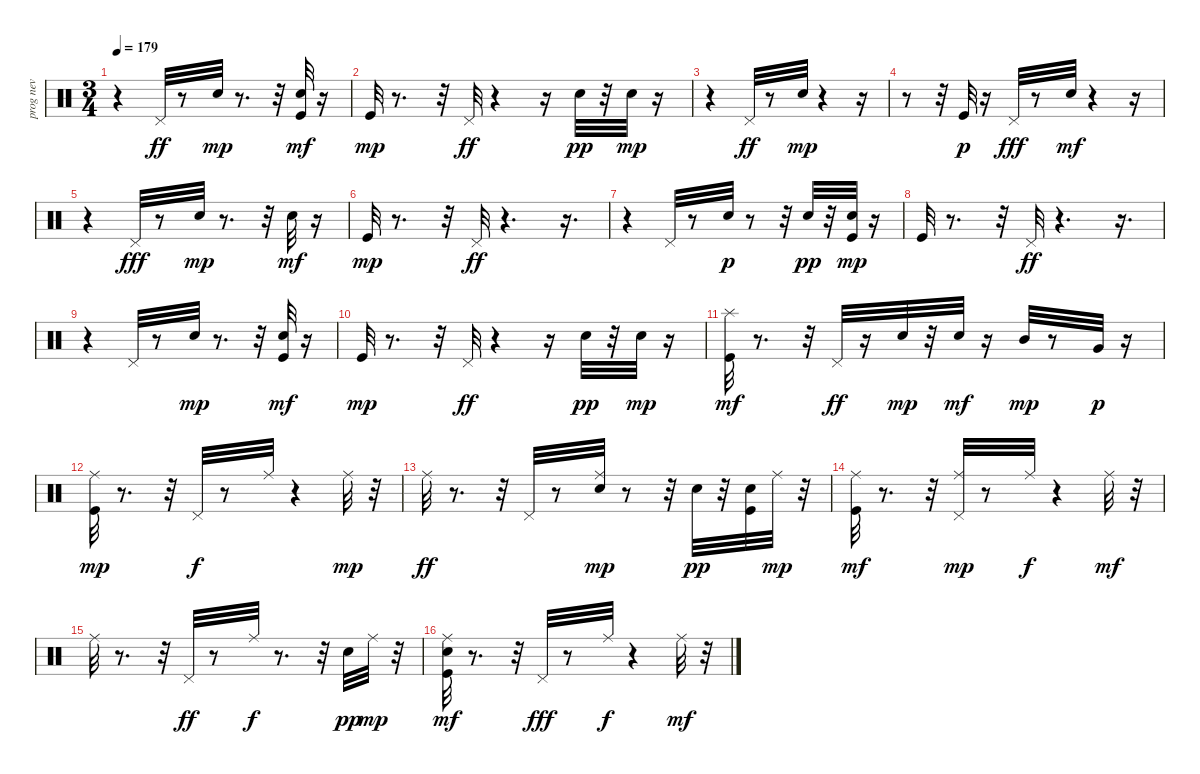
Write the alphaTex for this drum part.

\track ("prog nev" "prog nev") {instrument percussion}
\staff {score}
\articulation defaults
\ts (3 4)
\tempo 179
\clef neutral
\ks c
r.4{dy ff} "Pedal Hi-Hat (hit)".32 r.8 "Snare (hit) 2".32{dy mp} r.8{d} r.32 ("Kick (hit)" "Snare (hit) 2").32{dy mf} r.16 |
"Kick (hit)".32{dy mp} r.8{d} r.32 "Pedal Hi-Hat (hit)".32{dy ff} r.4 r.16 "Snare (hit) 2".32{dy pp} r.32 "Snare (hit) 2".32{dy mp} r.16 |
r.4 "Pedal Hi-Hat (hit)".32{dy ff} r.8 "Snare (hit) 2".32{dy mp} r.4 r.16 |
r.8 r.32 "Kick (hit)".32{dy p} r.16 "Pedal Hi-Hat (hit)".32{dy fff} r.8 "Hand Clap (hit)".32{dy mf} r.4 r.16 |
r.4 "Pedal Hi-Hat (hit)".32{dy fff} r.8 "Snare (hit) 2".32{dy mp} r.8{d} r.32 "Snare (hit) 2".32{dy mf} r.16 |
"Kick (hit)".32{dy mp} r.8{d} r.32 "Pedal Hi-Hat (hit)".32{dy ff} r.4{d} r.16{d} |
r.4 "Pedal Hi-Hat (hit)".32 r.8 "Hand Clap (hit)".32{dy p} r.8 r.32 "Snare (hit) 2".32{dy pp} r.32 ("Kick (hit)" "Snare (hit) 2").32{dy mp} r.16 |
"Kick (hit)".32 r.8{d} r.32 "Pedal Hi-Hat (hit)".32{dy ff} r.4{d} r.16{d} |
r.4 "Pedal Hi-Hat (hit)".32 r.8 "Snare (hit) 2".32{dy mp} r.8{d} r.32 ("Kick (hit)" "Snare (hit) 2").32{dy mf} r.16 |
"Kick (hit)".32{dy mp} r.8{d} r.32 "Pedal Hi-Hat (hit)".32{dy ff} r.4 r.16 "Snare (hit) 2".32{dy pp} r.32 "Snare (hit) 2".32{dy mp} r.16 |
("Kick (hit)" "Splash (hit)").32{dy mf} r.8{d} r.32 "Pedal Hi-Hat (hit)".32{dy ff} r.16 "Snare (hit) 2".32{dy mp} r.32 "Hand Clap (hit)".32{dy mf} r.16 "Mid Tom (hit)".32{dy mp} r.8 "Very Low Tom (hit)".32{dy p} r.16 |
("Kick (hit)" "Ride (middle)").32{dy mp} r.8{d} r.32 "Pedal Hi-Hat (hit)".32{dy f} r.8 "Ride (middle)".32 r.4 "Ride (middle)".32{dy mp} r.32 |
"Ride (middle)".32{dy ff} r.8{d} r.32 "Pedal Hi-Hat (hit)".32 r.8 ("Hand Clap (hit)" "Ride (middle)").32{dy mp} r.8 r.32 "Snare (hit) 2".32{dy pp} r.32 ("Kick (hit)" "Snare (hit) 2").32 "Ride (middle)".32{dy mp} r.32 |
("Kick (hit)" "Ride (middle)").32{dy mf} r.8{d} r.32 ("Pedal Hi-Hat (hit)" "Ride (middle)").32{dy mp} r.8 "Ride (middle)".32{dy f} r.4 "Ride (middle)".32{dy mf} r.32 |
"Ride (middle)".32 r.8{d} r.32 "Pedal Hi-Hat (hit)".32{dy ff} r.8 "Ride (middle)".32{dy f} r.8{d} r.32 "Snare (hit) 2".32{dy pp} "Ride (middle)".32{dy mp} r.32 |
("Kick (hit)" "Snare (hit) 2" "Ride (middle)").32{dy mf} r.8{d} r.32 "Pedal Hi-Hat (hit)".32{dy fff} r.8 "Ride (middle)".32{dy f} r.4 "Ride (middle)".32{dy mf} r.32
